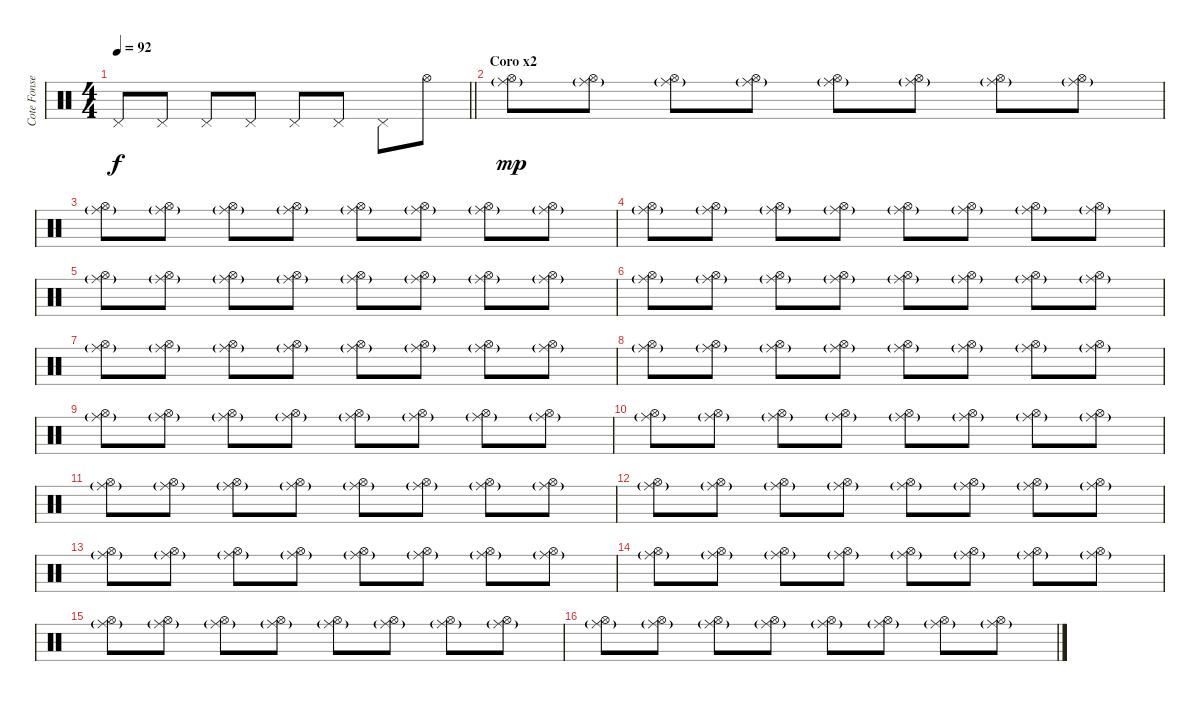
\track ("Cote Fonsea" "Cote Fonse") {instrument percussion}
\staff {score}
\articulation defaults
\ts (4 4)
\tempo 92
\clef neutral
\barLineRight lightlight
\ks c "Pedal Hi-Hat (hit)".8{dy f} "Pedal Hi-Hat (hit)".8 "Pedal Hi-Hat (hit)".8 "Pedal Hi-Hat (hit)".8 "Pedal Hi-Hat (hit)".8 "Pedal Hi-Hat (hit)".8 "Pedal Hi-Hat (hit)".8 "Hi-Hat (open)".8
|
\section ("" "Coro x2")
("Ride (middle)"{g} "Hi-Hat (open)").8{dy mp} ("Ride (middle)"{g} "Hi-Hat (open)").8 ("Ride (middle)"{g} "Hi-Hat (open)").8 ("Ride (middle)"{g} "Hi-Hat (open)").8 ("Ride (middle)"{g} "Hi-Hat (open)").8 ("Ride (middle)"{g} "Hi-Hat (open)").8 ("Ride (middle)"{g} "Hi-Hat (open)").8 ("Ride (middle)"{g} "Hi-Hat (open)").8 |
("Ride (middle)"{g} "Hi-Hat (open)").8 ("Ride (middle)"{g} "Hi-Hat (open)").8 ("Ride (middle)"{g} "Hi-Hat (open)").8 ("Ride (middle)"{g} "Hi-Hat (open)").8 ("Ride (middle)"{g} "Hi-Hat (open)").8 ("Ride (middle)"{g} "Hi-Hat (open)").8 ("Ride (middle)"{g} "Hi-Hat (open)").8 ("Ride (middle)"{g} "Hi-Hat (open)").8 |
("Ride (middle)"{g} "Hi-Hat (open)").8 ("Ride (middle)"{g} "Hi-Hat (open)").8 ("Ride (middle)"{g} "Hi-Hat (open)").8 ("Ride (middle)"{g} "Hi-Hat (open)").8 ("Ride (middle)"{g} "Hi-Hat (open)").8 ("Ride (middle)"{g} "Hi-Hat (open)").8 ("Ride (middle)"{g} "Hi-Hat (open)").8 ("Ride (middle)"{g} "Hi-Hat (open)").8 |
("Ride (middle)"{g} "Hi-Hat (open)").8 ("Ride (middle)"{g} "Hi-Hat (open)").8 ("Ride (middle)"{g} "Hi-Hat (open)").8 ("Ride (middle)"{g} "Hi-Hat (open)").8 ("Ride (middle)"{g} "Hi-Hat (open)").8 ("Ride (middle)"{g} "Hi-Hat (open)").8 ("Ride (middle)"{g} "Hi-Hat (open)").8 ("Ride (middle)"{g} "Hi-Hat (open)").8 |
("Ride (middle)"{g} "Hi-Hat (open)").8 ("Ride (middle)"{g} "Hi-Hat (open)").8 ("Ride (middle)"{g} "Hi-Hat (open)").8 ("Ride (middle)"{g} "Hi-Hat (open)").8 ("Ride (middle)"{g} "Hi-Hat (open)").8 ("Ride (middle)"{g} "Hi-Hat (open)").8 ("Ride (middle)"{g} "Hi-Hat (open)").8 ("Ride (middle)"{g} "Hi-Hat (open)").8 |
("Ride (middle)"{g} "Hi-Hat (open)").8 ("Ride (middle)"{g} "Hi-Hat (open)").8 ("Ride (middle)"{g} "Hi-Hat (open)").8 ("Ride (middle)"{g} "Hi-Hat (open)").8 ("Ride (middle)"{g} "Hi-Hat (open)").8 ("Ride (middle)"{g} "Hi-Hat (open)").8 ("Ride (middle)"{g} "Hi-Hat (open)").8 ("Ride (middle)"{g} "Hi-Hat (open)").8 |
("Ride (middle)"{g} "Hi-Hat (open)").8 ("Ride (middle)"{g} "Hi-Hat (open)").8 ("Ride (middle)"{g} "Hi-Hat (open)").8 ("Ride (middle)"{g} "Hi-Hat (open)").8 ("Ride (middle)"{g} "Hi-Hat (open)").8 ("Ride (middle)"{g} "Hi-Hat (open)").8 ("Ride (middle)"{g} "Hi-Hat (open)").8 ("Ride (middle)"{g} "Hi-Hat (open)").8 |
("Ride (middle)"{g} "Hi-Hat (open)").8 ("Ride (middle)"{g} "Hi-Hat (open)").8 ("Ride (middle)"{g} "Hi-Hat (open)").8 ("Ride (middle)"{g} "Hi-Hat (open)").8 ("Ride (middle)"{g} "Hi-Hat (open)").8 ("Ride (middle)"{g} "Hi-Hat (open)").8 ("Ride (middle)"{g} "Hi-Hat (open)").8 ("Ride (middle)"{g} "Hi-Hat (open)").8 |
("Ride (middle)"{g} "Hi-Hat (open)").8 ("Ride (middle)"{g} "Hi-Hat (open)").8 ("Ride (middle)"{g} "Hi-Hat (open)").8 ("Ride (middle)"{g} "Hi-Hat (open)").8 ("Ride (middle)"{g} "Hi-Hat (open)").8 ("Ride (middle)"{g} "Hi-Hat (open)").8 ("Ride (middle)"{g} "Hi-Hat (open)").8 ("Ride (middle)"{g} "Hi-Hat (open)").8 |
("Ride (middle)"{g} "Hi-Hat (open)").8 ("Ride (middle)"{g} "Hi-Hat (open)").8 ("Ride (middle)"{g} "Hi-Hat (open)").8 ("Ride (middle)"{g} "Hi-Hat (open)").8 ("Ride (middle)"{g} "Hi-Hat (open)").8 ("Ride (middle)"{g} "Hi-Hat (open)").8 ("Ride (middle)"{g} "Hi-Hat (open)").8 ("Ride (middle)"{g} "Hi-Hat (open)").8 |
("Ride (middle)"{g} "Hi-Hat (open)").8 ("Ride (middle)"{g} "Hi-Hat (open)").8 ("Ride (middle)"{g} "Hi-Hat (open)").8 ("Ride (middle)"{g} "Hi-Hat (open)").8 ("Ride (middle)"{g} "Hi-Hat (open)").8 ("Ride (middle)"{g} "Hi-Hat (open)").8 ("Ride (middle)"{g} "Hi-Hat (open)").8 ("Ride (middle)"{g} "Hi-Hat (open)").8 |
("Ride (middle)"{g} "Hi-Hat (open)").8 ("Ride (middle)"{g} "Hi-Hat (open)").8 ("Ride (middle)"{g} "Hi-Hat (open)").8 ("Ride (middle)"{g} "Hi-Hat (open)").8 ("Ride (middle)"{g} "Hi-Hat (open)").8 ("Ride (middle)"{g} "Hi-Hat (open)").8 ("Ride (middle)"{g} "Hi-Hat (open)").8 ("Ride (middle)"{g} "Hi-Hat (open)").8 |
("Ride (middle)"{g} "Hi-Hat (open)").8 ("Ride (middle)"{g} "Hi-Hat (open)").8 ("Ride (middle)"{g} "Hi-Hat (open)").8 ("Ride (middle)"{g} "Hi-Hat (open)").8 ("Ride (middle)"{g} "Hi-Hat (open)").8 ("Ride (middle)"{g} "Hi-Hat (open)").8 ("Ride (middle)"{g} "Hi-Hat (open)").8 ("Ride (middle)"{g} "Hi-Hat (open)").8 |
("Ride (middle)"{g} "Hi-Hat (open)").8 ("Ride (middle)"{g} "Hi-Hat (open)").8 ("Ride (middle)"{g} "Hi-Hat (open)").8 ("Ride (middle)"{g} "Hi-Hat (open)").8 ("Ride (middle)"{g} "Hi-Hat (open)").8 ("Ride (middle)"{g} "Hi-Hat (open)").8 ("Ride (middle)"{g} "Hi-Hat (open)").8 ("Ride (middle)"{g} "Hi-Hat (open)").8 |
("Ride (middle)"{g} "Hi-Hat (open)").8 ("Ride (middle)"{g} "Hi-Hat (open)").8 ("Ride (middle)"{g} "Hi-Hat (open)").8 ("Ride (middle)"{g} "Hi-Hat (open)").8 ("Ride (middle)"{g} "Hi-Hat (open)").8 ("Ride (middle)"{g} "Hi-Hat (open)").8 ("Ride (middle)"{g} "Hi-Hat (open)").8 ("Ride (middle)"{g} "Hi-Hat (open)").8
